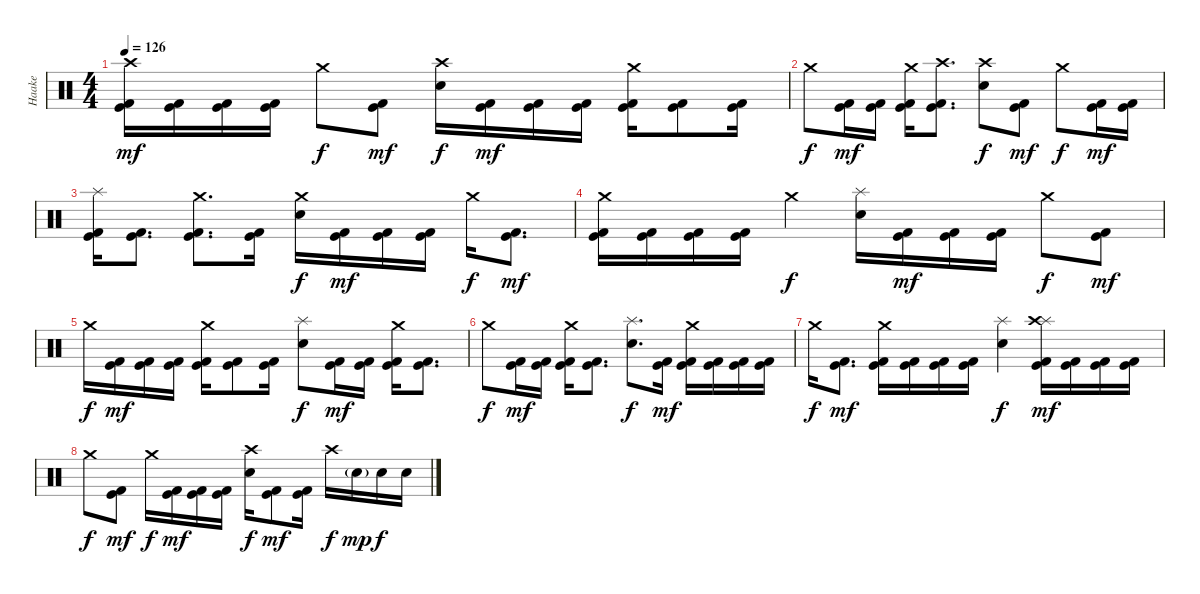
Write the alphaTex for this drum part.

\track ("Haake" "Haake") {instrument percussion}
\staff {score}
\articulation defaults
\ts (4 4)
\tempo 126
\clef neutral
\ks c
("Crash high (hit)" "Kick (hit)" "Kick (hit) 2").16{dy mf} ("Kick (hit)" "Kick (hit) 2").16 ("Kick (hit)" "Kick (hit) 2").16 ("Kick (hit)" "Kick (hit) 2").16 "Crash medium (hit)".8{dy f} ("Kick (hit)" "Kick (hit) 2").8{dy mf} ("Crash high (hit)" "Electric Snare (hit)").16{dy f} ("Kick (hit)" "Kick (hit) 2").16{dy mf} ("Kick (hit)" "Kick (hit) 2").16 ("Kick (hit)" "Kick (hit) 2").16 ("Crash medium (hit)" "Kick (hit)" "Kick (hit) 2").16 ("Kick (hit)" "Kick (hit) 2").8 ("Kick (hit)" "Kick (hit) 2").16 |
"Crash medium (hit)".8{dy f} ("Kick (hit)" "Kick (hit) 2").16{dy mf} ("Kick (hit)" "Kick (hit) 2").16 ("Crash medium (hit)" "Kick (hit)" "Kick (hit) 2").16 ("Crash high (hit)" "Kick (hit)" "Kick (hit) 2").8{d} ("Crash high (hit)" "Electric Snare (hit)").8{dy f} ("Kick (hit)" "Kick (hit) 2").8{dy mf} "Crash medium (hit)".8{dy f} ("Kick (hit)" "Kick (hit) 2").16{dy mf} ("Kick (hit)" "Kick (hit) 2").16 |
("Splash (hit)" "Kick (hit)" "Kick (hit) 2").16 ("Kick (hit)" "Kick (hit) 2").8{d} ("Crash medium (hit)" "Kick (hit)" "Kick (hit) 2").8{d} ("Kick (hit)" "Kick (hit) 2").16 ("Crash medium (hit)" "Electric Snare (hit)").16{dy f} ("Kick (hit)" "Kick (hit) 2").16{dy mf} ("Kick (hit)" "Kick (hit) 2").16 ("Kick (hit)" "Kick (hit) 2").16 "Crash medium (hit)".16{dy f} ("Kick (hit)" "Kick (hit) 2").8{d dy mf} |
("Crash medium (hit)" "Kick (hit)" "Kick (hit) 2").16 ("Kick (hit)" "Kick (hit) 2").16 ("Kick (hit)" "Kick (hit) 2").16 ("Kick (hit)" "Kick (hit) 2").16 "Crash medium (hit)".4{dy f} ("Splash (hit)" "Electric Snare (hit)").16 ("Kick (hit)" "Kick (hit) 2").16{dy mf} ("Kick (hit)" "Kick (hit) 2").16 ("Kick (hit)" "Kick (hit) 2").16 "Crash medium (hit)".8{dy f} ("Kick (hit)" "Kick (hit) 2").8{dy mf} |
"Crash medium (hit)".16{dy f} ("Kick (hit)" "Kick (hit) 2").16{dy mf} ("Kick (hit)" "Kick (hit) 2").16 ("Kick (hit)" "Kick (hit) 2").16 ("Crash medium (hit)" "Kick (hit)" "Kick (hit) 2").16 ("Kick (hit)" "Kick (hit) 2").8 ("Kick (hit)" "Kick (hit) 2").16 ("Splash (hit)" "Electric Snare (hit)").8{dy f} ("Kick (hit)" "Kick (hit) 2").16{dy mf} ("Kick (hit)" "Kick (hit) 2").16 ("Crash medium (hit)" "Kick (hit)" "Kick (hit) 2").16 ("Kick (hit)" "Kick (hit) 2").8{d} |
"Crash medium (hit)".8{dy f} ("Kick (hit)" "Kick (hit) 2").16{dy mf} ("Kick (hit)" "Kick (hit) 2").16 ("Crash medium (hit)" "Kick (hit)" "Kick (hit) 2").16 ("Kick (hit)" "Kick (hit) 2").8{d} ("Splash (hit)" "Electric Snare (hit)").8{d dy f} ("Kick (hit)" "Kick (hit) 2").16{dy mf} ("Crash medium (hit)" "Kick (hit)" "Kick (hit) 2").16 ("Kick (hit)" "Kick (hit) 2").16 ("Kick (hit)" "Kick (hit) 2").16 ("Kick (hit)" "Kick (hit) 2").16 |
"Crash medium (hit)".16{dy f} ("Kick (hit)" "Kick (hit) 2").8{d dy mf} ("Crash medium (hit)" "Kick (hit)" "Kick (hit) 2").16 ("Kick (hit)" "Kick (hit) 2").16 ("Kick (hit)" "Kick (hit) 2").16 ("Kick (hit)" "Kick (hit) 2").16 ("Splash (hit)" "Electric Snare (hit)").4{dy f} ("Splash (hit)" "Crash high (hit)" "Kick (hit)" "Kick (hit) 2").16{dy mf} ("Kick (hit)" "Kick (hit) 2").16 ("Kick (hit)" "Kick (hit) 2").16 ("Kick (hit)" "Kick (hit) 2").16 |
"Crash medium (hit)".8{dy f} ("Kick (hit)" "Kick (hit) 2").8{dy mf} "Crash medium (hit)".16{dy f} ("Kick (hit)" "Kick (hit) 2").16{dy mf} ("Kick (hit)" "Kick (hit) 2").16 ("Kick (hit)" "Kick (hit) 2").16 ("Crash high (hit)" "Electric Snare (hit)").16{dy f} ("Kick (hit)" "Kick (hit) 2").8{dy mf} ("Kick (hit)" "Kick (hit) 2").16 "Crash high (hit)".16{dy f} "Electric Snare (hit)"{g}.16{dy mp} "Electric Snare (hit)".16{dy f} "Electric Snare (hit)".16
